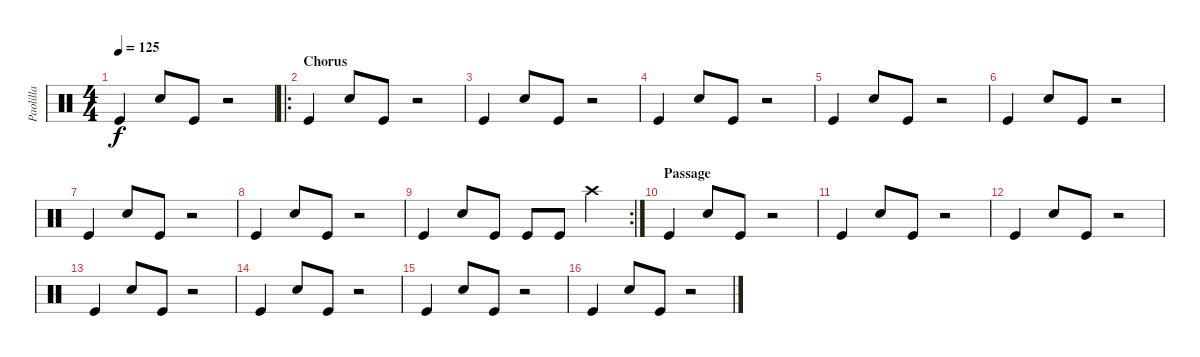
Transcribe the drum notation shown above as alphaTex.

\track ("Paolilla" "Paolilla") {instrument percussion}
\staff {score}
\articulation defaults
\ts (4 4)
\tempo 125
\clef neutral
\ks c "Kick (hit)".4{dy f} "Snare (hit) 2".8 "Kick (hit)".8
r.2 |
\ro
\section ("" "Chorus")
"Kick (hit)".4 "Snare (hit) 2".8 "Kick (hit)".8 r.2 |
"Kick (hit)".4 "Snare (hit) 2".8 "Kick (hit)".8 r.2 |
"Kick (hit)".4 "Snare (hit) 2".8 "Kick (hit)".8 r.2 |
"Kick (hit)".4 "Snare (hit) 2".8 "Kick (hit)".8 r.2 |
"Kick (hit)".4 "Snare (hit) 2".8 "Kick (hit)".8 r.2 |
"Kick (hit)".4 "Snare (hit) 2".8 "Kick (hit)".8 r.2 |
"Kick (hit)".4 "Snare (hit) 2".8 "Kick (hit)".8 r.2 |
\rc 2 "Kick (hit)".4 "Snare (hit) 2".8 "Kick (hit)".8 "Kick (hit)".8 "Kick (hit)".8 "Crash high (hit)".4
|
\section ("" "Passage")
"Kick (hit)".4 "Snare (hit) 2".8 "Kick (hit)".8 r.2 |
"Kick (hit)".4 "Snare (hit) 2".8 "Kick (hit)".8 r.2 |
"Kick (hit)".4 "Snare (hit) 2".8 "Kick (hit)".8 r.2 |
"Kick (hit)".4 "Snare (hit) 2".8 "Kick (hit)".8 r.2 |
"Kick (hit)".4 "Snare (hit) 2".8 "Kick (hit)".8 r.2 |
"Kick (hit)".4 "Snare (hit) 2".8 "Kick (hit)".8 r.2 |
"Kick (hit)".4 "Snare (hit) 2".8 "Kick (hit)".8 r.2
